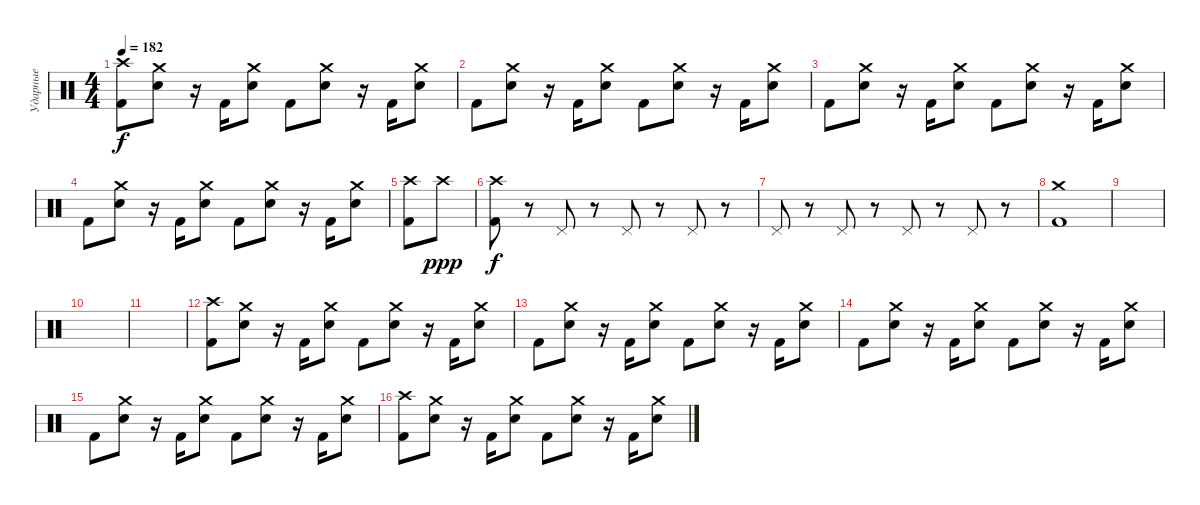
\track ("Ударные" "Ударные") {instrument percussion}
\staff {score}
\articulation defaults
\ts (4 4)
\tempo 182
\clef neutral
\ks c
("Crash high (hit)" "Kick (hit) 2").8{dy f} ("Crash medium (hit)" "Electric Snare (hit)").8 r.16 "Kick (hit) 2".16 ("Crash medium (hit)" "Electric Snare (hit)").8 "Kick (hit) 2".8 ("Crash medium (hit)" "Electric Snare (hit)").8 r.16 "Kick (hit) 2".16 ("Crash medium (hit)" "Electric Snare (hit)").8 |
"Kick (hit) 2".8 ("Crash medium (hit)" "Electric Snare (hit)").8 r.16 "Kick (hit) 2".16 ("Crash medium (hit)" "Electric Snare (hit)").8 "Kick (hit) 2".8 ("Crash medium (hit)" "Electric Snare (hit)").8 r.16 "Kick (hit) 2".16 ("Crash medium (hit)" "Electric Snare (hit)").8 |
"Kick (hit) 2".8 ("Crash medium (hit)" "Electric Snare (hit)").8 r.16 "Kick (hit) 2".16 ("Crash medium (hit)" "Electric Snare (hit)").8 "Kick (hit) 2".8 ("Crash medium (hit)" "Electric Snare (hit)").8 r.16 "Kick (hit) 2".16 ("Crash medium (hit)" "Electric Snare (hit)").8 |
"Kick (hit) 2".8 ("Crash medium (hit)" "Electric Snare (hit)").8 r.16 "Kick (hit) 2".16 ("Crash medium (hit)" "Electric Snare (hit)").8 "Kick (hit) 2".8 ("Crash medium (hit)" "Electric Snare (hit)").8 r.16 "Kick (hit) 2".16 ("Crash medium (hit)" "Electric Snare (hit)").8 |
("Crash high (hit)" "Kick (hit) 2").8 "Crash high (hit)".8{dy ppp} |
("Crash high (hit)" "Kick (hit) 2").8{dy f} r.8 "Pedal Hi-Hat (hit)".8 r.8 "Pedal Hi-Hat (hit)".8 r.8 "Pedal Hi-Hat (hit)".8 r.8 |
"Pedal Hi-Hat (hit)".8 r.8 "Pedal Hi-Hat (hit)".8 r.8 "Pedal Hi-Hat (hit)".8 r.8 "Pedal Hi-Hat (hit)".8 r.8 |
("Crash medium (hit)" "Kick (hit) 2").1 |
|
|
|
("Crash high (hit)" "Kick (hit) 2").8 ("Crash medium (hit)" "Electric Snare (hit)").8 r.16 "Kick (hit) 2".16 ("Crash medium (hit)" "Electric Snare (hit)").8 "Kick (hit) 2".8 ("Crash medium (hit)" "Electric Snare (hit)").8 r.16 "Kick (hit) 2".16 ("Crash medium (hit)" "Electric Snare (hit)").8 |
"Kick (hit) 2".8 ("Crash medium (hit)" "Electric Snare (hit)").8 r.16 "Kick (hit) 2".16 ("Crash medium (hit)" "Electric Snare (hit)").8 "Kick (hit) 2".8 ("Crash medium (hit)" "Electric Snare (hit)").8 r.16 "Kick (hit) 2".16 ("Crash medium (hit)" "Electric Snare (hit)").8 |
"Kick (hit) 2".8 ("Crash medium (hit)" "Electric Snare (hit)").8 r.16 "Kick (hit) 2".16 ("Crash medium (hit)" "Electric Snare (hit)").8 "Kick (hit) 2".8 ("Crash medium (hit)" "Electric Snare (hit)").8 r.16 "Kick (hit) 2".16 ("Crash medium (hit)" "Electric Snare (hit)").8 |
"Kick (hit) 2".8 ("Crash medium (hit)" "Electric Snare (hit)").8 r.16 "Kick (hit) 2".16 ("Crash medium (hit)" "Electric Snare (hit)").8 "Kick (hit) 2".8 ("Crash medium (hit)" "Electric Snare (hit)").8 r.16 "Kick (hit) 2".16 ("Crash medium (hit)" "Electric Snare (hit)").8 |
("Crash high (hit)" "Kick (hit) 2").8 ("Crash medium (hit)" "Electric Snare (hit)").8 r.16 "Kick (hit) 2".16 ("Crash medium (hit)" "Electric Snare (hit)").8 "Kick (hit) 2".8 ("Crash medium (hit)" "Electric Snare (hit)").8 r.16 "Kick (hit) 2".16 ("Crash medium (hit)" "Electric Snare (hit)").8
